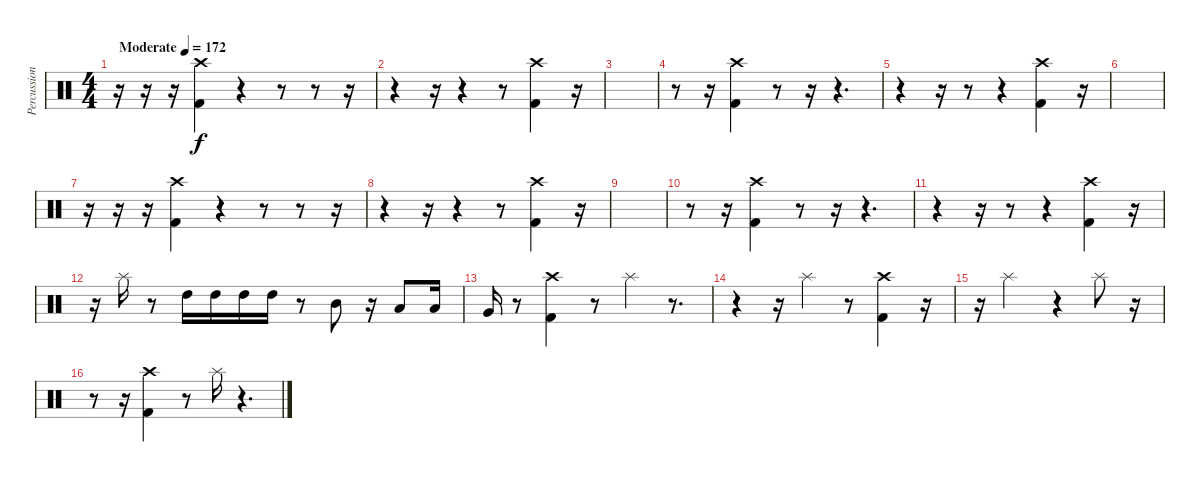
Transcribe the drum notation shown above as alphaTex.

\track ("Percussion" "Percussion") {instrument percussion}
\staff {score}
\articulation defaults
\ts (4 4)
\tempo (172 "Moderate")
\clef neutral
\ks c
r.16{dy f} r.16 r.16 ("Crash high (hit)" "Kick (hit) 2").4 r.4 r.8 r.8 r.16 |
r.4 r.16 r.4 r.8 ("Crash high (hit)" "Kick (hit) 2").4 r.16 |
|
r.8 r.16 ("Crash high (hit)" "Kick (hit) 2").4 r.8 r.16 r.4{d} |
r.4 r.16 r.8 r.4 ("Crash high (hit)" "Kick (hit) 2").4 r.16 |
|
r.16 r.16 r.16 ("Crash high (hit)" "Kick (hit) 2").4 r.4 r.8 r.8 r.16 |
r.4 r.16 r.4 r.8 ("Crash high (hit)" "Kick (hit) 2").4 r.16 |
|
r.8 r.16 ("Crash high (hit)" "Kick (hit) 2").4 r.8 r.16 r.4{d} |
r.4 r.16 r.8 r.4 ("Crash high (hit)" "Kick (hit) 2").4 r.16 |
r.16 "Splash (hit)".16 r.8 "High Tom (hit)".16 "High Tom (hit)".16 "High Tom (hit)".16 "High Tom (hit)".16 r.8 "Mid Tom (hit)".8 r.16 "Low Tom (hit)".8 "Low Tom (hit)".16 |
"Very Low Tom (hit)".16 r.8 ("Crash high (hit)" "Kick (hit) 2").4 r.8 "Splash (hit)".4 r.8{d} |
r.4 r.16 "Splash (hit)".4 r.8 ("Crash high (hit)" "Kick (hit) 2").4 r.16 |
r.16 "Splash (hit)".2 r.4 "Splash (hit)".8 r.16 |
r.8 r.16 ("Crash high (hit)" "Kick (hit) 2").4 r.8 "Splash (hit)".16 r.4{d}
